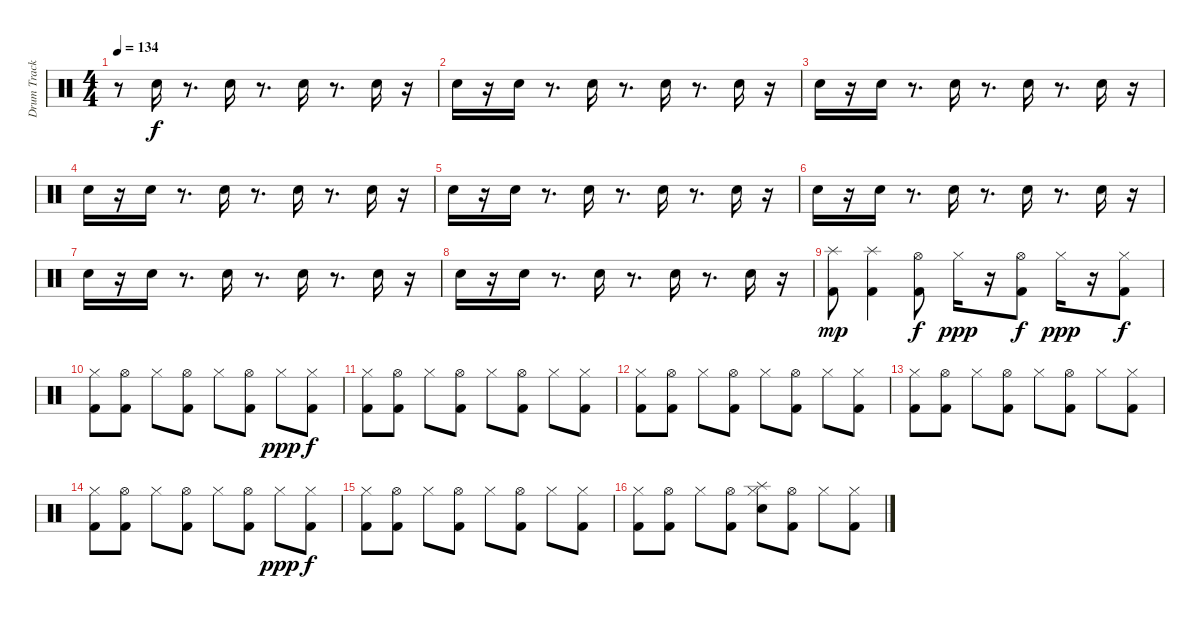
\track ("Drum Track" "Drum Track") {instrument percussion}
\staff {score}
\articulation defaults
\ts (4 4)
\tempo 134
\clef neutral
\ks c
r.8{dy mf} "Electric Snare (hit)".16{dy f} r.8{d} "Electric Snare (hit)".16 r.8{d} "Electric Snare (hit)".16 r.8{d} "Electric Snare (hit)".16 r.16 |
"Electric Snare (hit)".16 r.16 "Electric Snare (hit)".16 r.8{d} "Electric Snare (hit)".16 r.8{d} "Electric Snare (hit)".16 r.8{d} "Electric Snare (hit)".16 r.16 |
"Electric Snare (hit)".16 r.16 "Electric Snare (hit)".16 r.8{d} "Electric Snare (hit)".16 r.8{d} "Electric Snare (hit)".16 r.8{d} "Electric Snare (hit)".16 r.16 |
"Electric Snare (hit)".16 r.16 "Electric Snare (hit)".16 r.8{d} "Electric Snare (hit)".16 r.8{d} "Electric Snare (hit)".16 r.8{d} "Electric Snare (hit)".16 r.16 |
"Electric Snare (hit)".16 r.16 "Electric Snare (hit)".16 r.8{d} "Electric Snare (hit)".16 r.8{d} "Electric Snare (hit)".16 r.8{d} "Electric Snare (hit)".16 r.16 |
"Electric Snare (hit)".16 r.16 "Electric Snare (hit)".16 r.8{d} "Electric Snare (hit)".16 r.8{d} "Electric Snare (hit)".16 r.8{d} "Electric Snare (hit)".16 r.16 |
"Electric Snare (hit)".16 r.16 "Electric Snare (hit)".16 r.8{d} "Electric Snare (hit)".16 r.8{d} "Electric Snare (hit)".16 r.8{d} "Electric Snare (hit)".16 r.16 |
"Electric Snare (hit)".16 r.16 "Electric Snare (hit)".16 r.8{d} "Electric Snare (hit)".16 r.8{d} "Electric Snare (hit)".16 r.8{d} "Electric Snare (hit)".16 r.16 |
("Kick (hit) 2" "Splash (hit)").8{dy mp} ("Kick (hit) 2" "Splash (hit)").4 ("Kick (hit) 2" "Hi-Hat (open)").8{dy f} "Hi-Hat (closed)".16{dy ppp} r.16 ("Kick (hit) 2" "Hi-Hat (open)").8{dy f} "Hi-Hat (closed)".16{dy ppp} r.16 ("Kick (hit) 2" "Hi-Hat (closed)").8{dy f} |
("Kick (hit) 2" "Hi-Hat (closed)").8 ("Kick (hit) 2" "Hi-Hat (open)").8 "Hi-Hat (closed)".8 ("Kick (hit) 2" "Hi-Hat (open)").8 "Hi-Hat (closed)".8 ("Kick (hit) 2" "Hi-Hat (open)").8 "Hi-Hat (closed)".8{dy ppp} ("Kick (hit) 2" "Hi-Hat (closed)").8{dy f} |
("Kick (hit) 2" "Hi-Hat (closed)").8 ("Kick (hit) 2" "Hi-Hat (open)").8 "Hi-Hat (closed)".8 ("Kick (hit) 2" "Hi-Hat (open)").8 "Hi-Hat (closed)".8 ("Kick (hit) 2" "Hi-Hat (open)").8 "Hi-Hat (closed)".8 ("Kick (hit) 2" "Hi-Hat (closed)").8 |
("Kick (hit) 2" "Hi-Hat (closed)").8 ("Kick (hit) 2" "Hi-Hat (open)").8 "Hi-Hat (closed)".8 ("Kick (hit) 2" "Hi-Hat (open)").8 "Hi-Hat (closed)".8 ("Kick (hit) 2" "Hi-Hat (open)").8 "Hi-Hat (closed)".8 ("Kick (hit) 2" "Hi-Hat (closed)").8 |
("Kick (hit) 2" "Hi-Hat (closed)").8 ("Kick (hit) 2" "Hi-Hat (open)").8 "Hi-Hat (closed)".8 ("Kick (hit) 2" "Hi-Hat (open)").8 "Hi-Hat (closed)".8 ("Kick (hit) 2" "Hi-Hat (open)").8 "Hi-Hat (closed)".8 ("Kick (hit) 2" "Hi-Hat (closed)").8 |
("Kick (hit) 2" "Hi-Hat (closed)").8 ("Kick (hit) 2" "Hi-Hat (open)").8 "Hi-Hat (closed)".8 ("Kick (hit) 2" "Hi-Hat (open)").8 "Hi-Hat (closed)".8 ("Kick (hit) 2" "Hi-Hat (open)").8 "Hi-Hat (closed)".8{dy ppp} ("Kick (hit) 2" "Hi-Hat (closed)").8{dy f} |
("Kick (hit) 2" "Hi-Hat (closed)").8 ("Kick (hit) 2" "Hi-Hat (open)").8 "Hi-Hat (closed)".8 ("Kick (hit) 2" "Hi-Hat (open)").8 "Hi-Hat (closed)".8 ("Kick (hit) 2" "Hi-Hat (open)").8 "Hi-Hat (closed)".8 ("Kick (hit) 2" "Hi-Hat (closed)").8 |
("Kick (hit) 2" "Hi-Hat (closed)").8 ("Kick (hit) 2" "Hi-Hat (open)").8 "Hi-Hat (closed)".8 ("Kick (hit) 2" "Hi-Hat (open)").8 ("Electric Snare (hit)" "Splash (hit)" "Hi-Hat (closed)").8 ("Kick (hit) 2" "Hi-Hat (open)").8 "Hi-Hat (closed)".8 ("Kick (hit) 2" "Hi-Hat (closed)").8
